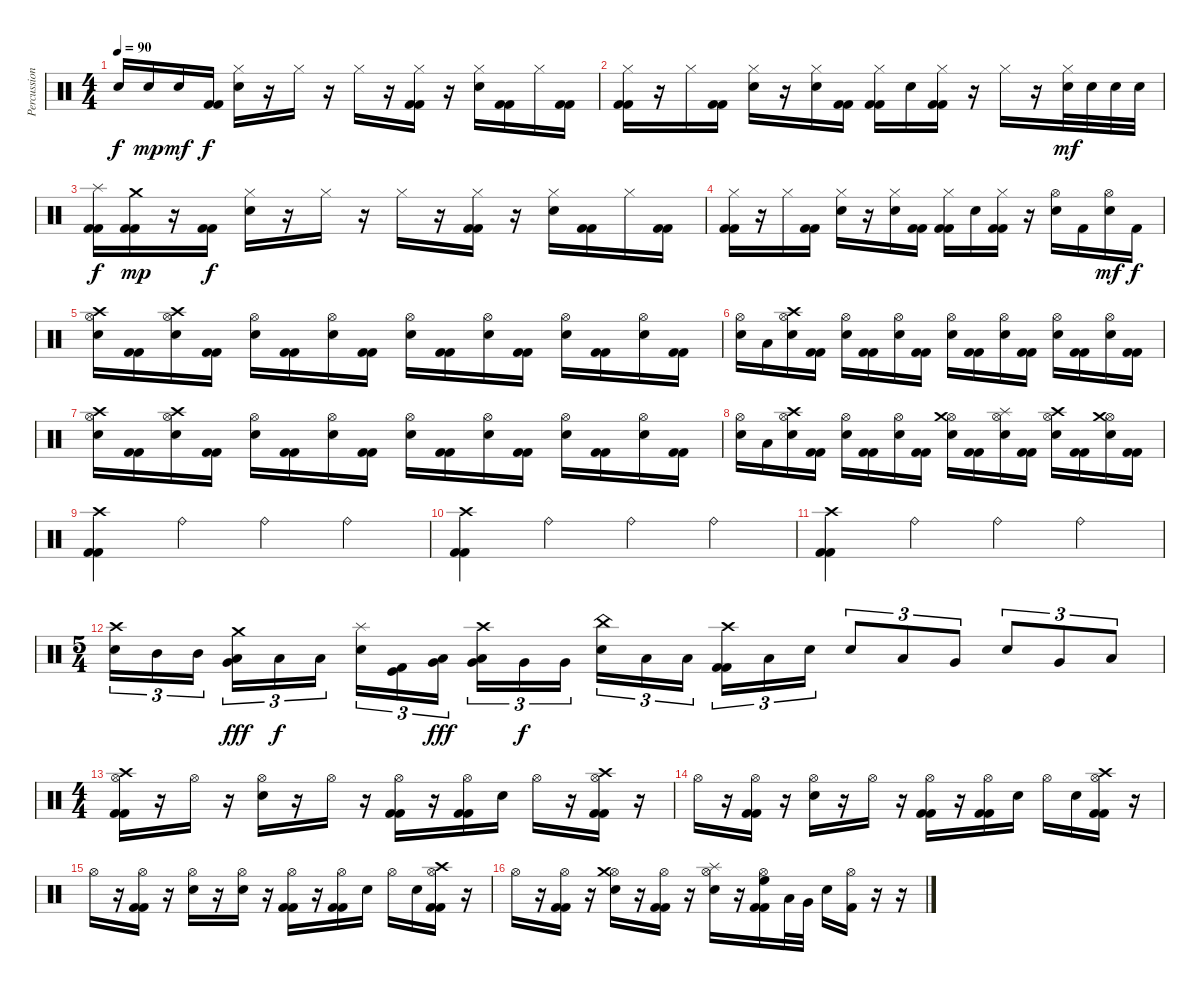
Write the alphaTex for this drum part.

\track ("Percussion" "Percussion") {instrument percussion}
\staff {score}
\articulation defaults
\ts (4 4)
\tempo 90
\clef neutral
\ks c "Electric Snare (hit)".16{dy f} "Electric Snare (hit)".16{dy mp} "Electric Snare (hit)".16{dy mf}
("Kick (hit) 2" "Kick (hit) 2").16{dy f} ("Hi-Hat (closed)" "Electric Snare (hit)").16 r.16 "Hi-Hat (closed)".16 r.16 "Hi-Hat (closed)".16 r.16 ("Hi-Hat (closed)" "Kick (hit) 2" "Kick (hit) 2").16 r.16 ("Hi-Hat (closed)" "Electric Snare (hit)").16 ("Kick (hit) 2" "Kick (hit) 2").16 "Hi-Hat (closed)".16 ("Kick (hit) 2" "Kick (hit) 2").16 |
("Hi-Hat (closed)" "Kick (hit) 2" "Kick (hit) 2").16 r.16 "Hi-Hat (closed)".16 ("Kick (hit) 2" "Kick (hit) 2").16 ("Hi-Hat (closed)" "Electric Snare (hit)").16 r.16 ("Hi-Hat (closed)" "Electric Snare (hit)").16 ("Kick (hit) 2" "Kick (hit) 2").16 ("Hi-Hat (closed)" "Kick (hit) 2" "Kick (hit) 2").16 "Electric Snare (hit)".16 ("Hi-Hat (closed)" "Kick (hit) 2" "Kick (hit) 2").16 r.16 "Hi-Hat (closed)".16 r.16 ("Hi-Hat (closed)" "Electric Snare (hit)").32{dy mf} "Electric Snare (hit)".32 "Electric Snare (hit)".32 "Electric Snare (hit)".32 |
("Splash (hit)" "Kick (hit) 2" "Kick (hit) 2").16{dy f} ("Crash medium (hit)" "Kick (hit) 2" "Kick (hit) 2").16{dy mp} r.16 ("Kick (hit) 2" "Kick (hit) 2").16{dy f} ("Hi-Hat (closed)" "Electric Snare (hit)").16 r.16 "Hi-Hat (closed)".16 r.16 "Hi-Hat (closed)".16 r.16 ("Hi-Hat (closed)" "Kick (hit) 2" "Kick (hit) 2").16 r.16 ("Hi-Hat (closed)" "Electric Snare (hit)").16 ("Kick (hit) 2" "Kick (hit) 2").16 "Hi-Hat (closed)".16 ("Kick (hit) 2" "Kick (hit) 2").16 |
("Hi-Hat (closed)" "Kick (hit) 2" "Kick (hit) 2").16 r.16 "Hi-Hat (closed)".16 ("Kick (hit) 2" "Kick (hit) 2").16 ("Hi-Hat (closed)" "Electric Snare (hit)").16 r.16 ("Hi-Hat (closed)" "Electric Snare (hit)").16 ("Kick (hit) 2" "Kick (hit) 2").16 ("Hi-Hat (closed)" "Kick (hit) 2" "Kick (hit) 2").16 "Electric Snare (hit)".16 ("Hi-Hat (closed)" "Kick (hit) 2" "Kick (hit) 2").16 r.16 ("Hi-Hat (open)" "Electric Snare (hit)").16 "Kick (hit) 2".16 ("Hi-Hat (open)" "Electric Snare (hit)").16{dy mf} "Kick (hit) 2".16{dy f} |
("Hi-Hat (open)" "Crash high (hit)" "Electric Snare (hit)").16 ("Kick (hit) 2" "Kick (hit) 2").16 ("Hi-Hat (open)" "Crash high (hit)" "Electric Snare (hit)").16 ("Kick (hit) 2" "Kick (hit) 2").16 ("Hi-Hat (open)" "Electric Snare (hit)").16 ("Kick (hit) 2" "Kick (hit) 2").16 ("Hi-Hat (open)" "Electric Snare (hit)").16 ("Kick (hit) 2" "Kick (hit) 2").16 ("Hi-Hat (open)" "Electric Snare (hit)").16 ("Kick (hit) 2" "Kick (hit) 2").16 ("Hi-Hat (open)" "Electric Snare (hit)").16 ("Kick (hit) 2" "Kick (hit) 2").16 ("Hi-Hat (open)" "Electric Snare (hit)").16 ("Kick (hit) 2" "Kick (hit) 2").16 ("Hi-Hat (open)" "Electric Snare (hit)").16 ("Kick (hit) 2" "Kick (hit) 2").16 |
("Hi-Hat (open)" "Electric Snare (hit)").16 "Low Tom (hit)".16 ("Hi-Hat (open)" "Crash high (hit)" "Electric Snare (hit)").16 ("Kick (hit) 2" "Kick (hit) 2").16 ("Hi-Hat (open)" "Electric Snare (hit)").16 ("Kick (hit) 2" "Kick (hit) 2").16 ("Hi-Hat (open)" "Electric Snare (hit)").16 ("Kick (hit) 2" "Kick (hit) 2").16 ("Hi-Hat (open)" "Electric Snare (hit)").16 ("Kick (hit) 2" "Kick (hit) 2").16 ("Hi-Hat (open)" "Electric Snare (hit)").16 ("Kick (hit) 2" "Kick (hit) 2").16 ("Hi-Hat (open)" "Electric Snare (hit)").16 ("Kick (hit) 2" "Kick (hit) 2").16 ("Hi-Hat (open)" "Electric Snare (hit)").16 ("Kick (hit) 2" "Kick (hit) 2").16 |
("Hi-Hat (open)" "Crash high (hit)" "Electric Snare (hit)").16 ("Kick (hit) 2" "Kick (hit) 2").16 ("Hi-Hat (open)" "Crash high (hit)" "Electric Snare (hit)").16 ("Kick (hit) 2" "Kick (hit) 2").16 ("Hi-Hat (open)" "Electric Snare (hit)").16 ("Kick (hit) 2" "Kick (hit) 2").16 ("Hi-Hat (open)" "Electric Snare (hit)").16 ("Kick (hit) 2" "Kick (hit) 2").16 ("Hi-Hat (open)" "Electric Snare (hit)").16 ("Kick (hit) 2" "Kick (hit) 2").16 ("Hi-Hat (open)" "Electric Snare (hit)").16 ("Kick (hit) 2" "Kick (hit) 2").16 ("Hi-Hat (open)" "Electric Snare (hit)").16 ("Kick (hit) 2" "Kick (hit) 2").16 ("Hi-Hat (open)" "Electric Snare (hit)").16 ("Kick (hit) 2" "Kick (hit) 2").16 |
("Hi-Hat (open)" "Electric Snare (hit)").16 "Low Tom (hit)".16 ("Hi-Hat (open)" "Crash high (hit)" "Electric Snare (hit)").16 ("Kick (hit) 2" "Kick (hit) 2").16 ("Hi-Hat (open)" "Electric Snare (hit)").16 ("Kick (hit) 2" "Kick (hit) 2").16 ("Hi-Hat (open)" "Electric Snare (hit)").16 ("Kick (hit) 2" "Kick (hit) 2").16 ("Hi-Hat (open)" "Crash medium (hit)" "Electric Snare (hit)").16 ("Kick (hit) 2" "Kick (hit) 2").16 ("Hi-Hat (open)" "Splash (hit)" "Electric Snare (hit)").16 ("Kick (hit) 2" "Kick (hit) 2").16 ("Hi-Hat (open)" "Crash high (hit)" "Electric Snare (hit)").16 ("Kick (hit) 2" "Kick (hit) 2").16 ("Hi-Hat (open)" "Crash medium (hit)" "Electric Snare (hit)").16 ("Kick (hit) 2" "Kick (hit) 2").16 |
("Kick (hit) 2" "Crash high (hit)" "Kick (hit) 2").4 "Ride (bell)".4 "Ride (bell)".4 "Ride (bell)".4 |
("Kick (hit) 2" "Crash high (hit)" "Kick (hit) 2").4 "Ride (bell)".4 "Ride (bell)".4 "Ride (bell)".4 |
("Kick (hit) 2" "Crash high (hit)" "Kick (hit) 2").4 "Ride (bell)".4 "Ride (bell)".4 "Ride (bell)".4 |
\ts (5 4)
("Crash high (hit)" "Electric Snare (hit)").16{tu (3 2)} "Mid Tom (hit)".16{tu (3 2)} "Mid Tom (hit)".16{tu (3 2)} ("Crash medium (hit)" "Low Floor Tom (hit)" "Very Low Tom (hit)").16{tu (3 2) dy fff} "Low Tom (hit)".16{tu (3 2) dy f} "Low Tom (hit)".16{tu (3 2)} ("Splash (hit)" "Electric Snare (hit)").16{tu (3 2)} ("Kick (hit) 2" "Kick (hit)").16{tu (3 2)} ("Low Floor Tom (hit)" "Very Low Tom (hit)").16{tu (3 2) dy fff} ("Crash high (hit)" "Low Floor Tom (hit)" "Very Low Tom (hit)").16{tu (3 2)} "Very Low Tom (hit)".16{tu (3 2) dy f} "Very Low Tom (hit)".16{tu (3 2)} ("China (hit)" "Electric Snare (hit)").16{tu (3 2)} "Low Floor Tom (hit)".16{tu (3 2)} "Low Floor Tom (hit)".16{tu (3 2)} ("Crash high (hit)" "Kick (hit) 2" "Kick (hit) 2").16{tu (3 2)} "Low Floor Tom (hit)".16{tu (3 2)} "Electric Snare (hit)".16{tu (3 2)} "Electric Snare (hit)".8{tu (3 2)} "Low Tom (hit)".8{tu (3 2)} "Very Low Tom (hit)".8{tu (3 2)} "Electric Snare (hit)".8{tu (3 2)} "Very Low Tom (hit)".8{tu (3 2)} "Low Floor Tom (hit)".8{tu (3 2)} |
\ts (4 4)
("Hi-Hat (open)" "Crash high (hit)" "Kick (hit) 2" "Kick (hit) 2").16 r.16 "Hi-Hat (open)".16 r.16 ("Hi-Hat (open)" "Electric Snare (hit)").16 r.16 "Hi-Hat (open)".16 r.16 ("Hi-Hat (open)" "Kick (hit) 2" "Kick (hit) 2").16 r.16 ("Hi-Hat (open)" "Kick (hit) 2" "Kick (hit) 2").16 "Electric Snare (hit)".16 "Hi-Hat (open)".16 r.16 ("Hi-Hat (open)" "Crash high (hit)" "Kick (hit) 2" "Kick (hit) 2").16 r.16 |
"Hi-Hat (open)".16 r.16 ("Hi-Hat (open)" "Kick (hit) 2" "Kick (hit) 2").16 r.16 ("Hi-Hat (open)" "Electric Snare (hit)").16 r.16 "Hi-Hat (open)".16 r.16 ("Hi-Hat (open)" "Kick (hit) 2" "Kick (hit) 2").16 r.16 ("Hi-Hat (open)" "Kick (hit) 2" "Kick (hit) 2").16 "Electric Snare (hit)".16 "Hi-Hat (open)".16 "Electric Snare (hit)".16 ("Hi-Hat (open)" "Crash high (hit)" "Kick (hit) 2" "Kick (hit) 2").16 r.16 |
"Hi-Hat (open)".16 r.16 ("Hi-Hat (open)" "Kick (hit) 2" "Kick (hit) 2").16 r.16 ("Hi-Hat (open)" "Electric Snare (hit)").16 r.16 ("Hi-Hat (open)" "Electric Snare (hit)").16 r.16 ("Hi-Hat (open)" "Kick (hit) 2" "Kick (hit) 2").16 r.16 ("Hi-Hat (open)" "Kick (hit) 2" "Kick (hit) 2").16 "Electric Snare (hit)".16 "Hi-Hat (open)".16 "Electric Snare (hit)".16 ("Hi-Hat (open)" "Crash high (hit)" "Kick (hit) 2" "Kick (hit) 2").16 r.16 |
"Hi-Hat (open)".16 r.16 ("Hi-Hat (open)" "Kick (hit) 2" "Kick (hit) 2").16 r.16 ("Hi-Hat (open)" "Crash medium (hit)" "Electric Snare (hit)").16 r.16 ("Hi-Hat (open)" "Kick (hit) 2" "Kick (hit) 2").16 r.16 ("Hi-Hat (open)" "Splash (hit)" "Electric Snare (hit)").16 r.16 ("Hi-Hat (open)" "High Floor Tom (hit)" "Kick (hit) 2" "Kick (hit) 2").16 "Low Tom (hit)".32 "Very Low Tom (hit)".32 "Electric Snare (hit)".16 ("Hi-Hat (open)" "Kick (hit) 2").16 r.16 r.16
